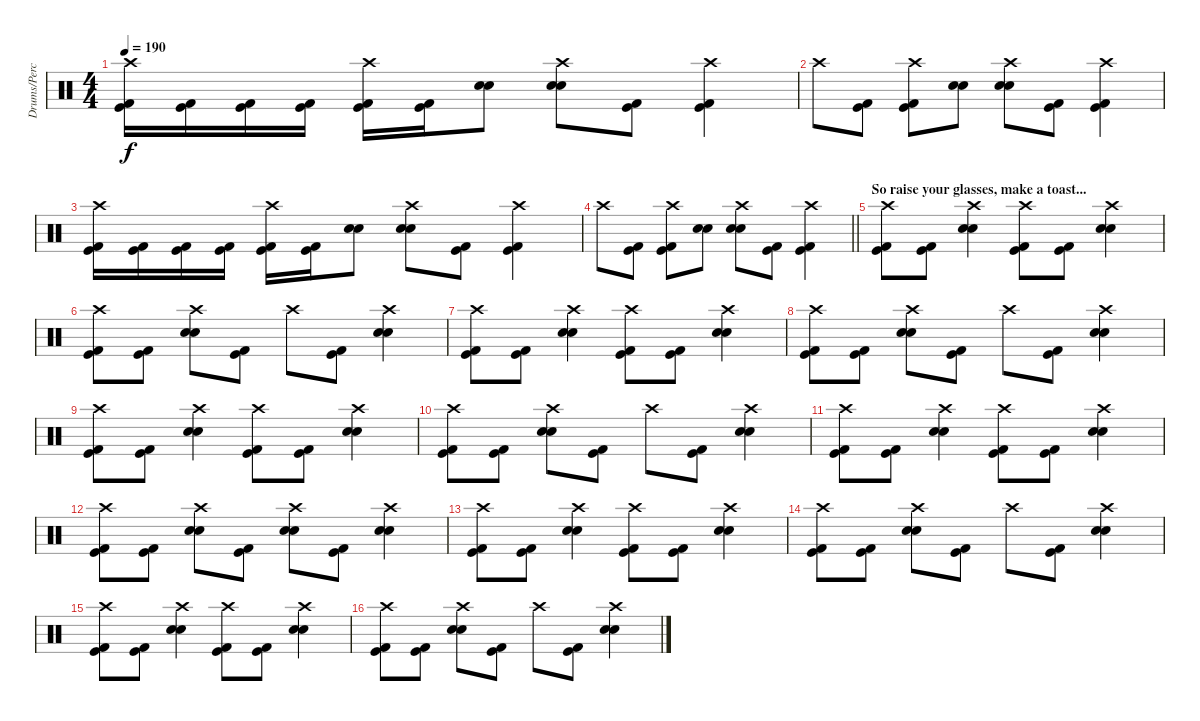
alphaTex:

\track ("Drums/Percussion" "Drums/Perc") {instrument percussion}
\staff {score}
\articulation defaults
\ts (4 4)
\tempo 190
\clef neutral
\ks c
("Crash high (hit)" "Kick (hit)" "Kick (hit) 2").16{dy f} ("Kick (hit)" "Kick (hit) 2").16 ("Kick (hit)" "Kick (hit) 2").16 ("Kick (hit)" "Kick (hit) 2").16 ("Crash high (hit)" "Kick (hit)" "Kick (hit) 2").16 ("Kick (hit)" "Kick (hit) 2").16 ("Electric Snare (hit)" "Snare (hit) 2").8 ("Crash high (hit)" "Electric Snare (hit)" "Snare (hit) 2").8 ("Kick (hit)" "Kick (hit) 2").8 ("Crash high (hit)" "Kick (hit)" "Kick (hit) 2").4 |
"Crash high (hit)".8 ("Kick (hit)" "Kick (hit) 2").8 ("Crash high (hit)" "Kick (hit)" "Kick (hit) 2").8 ("Electric Snare (hit)" "Snare (hit) 2").8 ("Crash high (hit)" "Electric Snare (hit)" "Snare (hit) 2").8 ("Kick (hit)" "Kick (hit) 2").8 ("Crash high (hit)" "Kick (hit)" "Kick (hit) 2").4 |
("Crash high (hit)" "Kick (hit)" "Kick (hit) 2").16 ("Kick (hit)" "Kick (hit) 2").16 ("Kick (hit)" "Kick (hit) 2").16 ("Kick (hit)" "Kick (hit) 2").16 ("Crash high (hit)" "Kick (hit)" "Kick (hit) 2").16 ("Kick (hit)" "Kick (hit) 2").16 ("Electric Snare (hit)" "Snare (hit) 2").8 ("Crash high (hit)" "Electric Snare (hit)" "Snare (hit) 2").8 ("Kick (hit)" "Kick (hit) 2").8 ("Crash high (hit)" "Kick (hit)" "Kick (hit) 2").4 |
\barLineRight lightlight "Crash high (hit)".8
("Kick (hit)" "Kick (hit) 2").8 ("Crash high (hit)" "Kick (hit)" "Kick (hit) 2").8 ("Electric Snare (hit)" "Snare (hit) 2").8 ("Crash high (hit)" "Electric Snare (hit)" "Snare (hit) 2").8 ("Kick (hit)" "Kick (hit) 2").8 ("Crash high (hit)" "Kick (hit)" "Kick (hit) 2").4 |
\section ("" "So raise your glasses, make a toast...")
("Crash high (hit)" "Kick (hit)" "Kick (hit) 2").8 ("Kick (hit)" "Kick (hit) 2").8 ("Crash high (hit)" "Electric Snare (hit)" "Snare (hit) 2").4 ("Crash high (hit)" "Kick (hit)" "Kick (hit) 2").8 ("Kick (hit)" "Kick (hit) 2").8 ("Crash high (hit)" "Electric Snare (hit)" "Snare (hit) 2").4 |
("Crash high (hit)" "Kick (hit)" "Kick (hit) 2").8 ("Kick (hit)" "Kick (hit) 2").8 ("Crash high (hit)" "Electric Snare (hit)" "Snare (hit) 2").8 ("Kick (hit)" "Kick (hit) 2").8 "Crash high (hit)".8 ("Kick (hit)" "Kick (hit) 2").8 ("Crash high (hit)" "Electric Snare (hit)" "Snare (hit) 2").4 |
("Crash high (hit)" "Kick (hit)" "Kick (hit) 2").8 ("Kick (hit)" "Kick (hit) 2").8 ("Crash high (hit)" "Electric Snare (hit)" "Snare (hit) 2").4 ("Crash high (hit)" "Kick (hit)" "Kick (hit) 2").8 ("Kick (hit)" "Kick (hit) 2").8 ("Crash high (hit)" "Electric Snare (hit)" "Snare (hit) 2").4 |
("Crash high (hit)" "Kick (hit)" "Kick (hit) 2").8 ("Kick (hit)" "Kick (hit) 2").8 ("Crash high (hit)" "Electric Snare (hit)" "Snare (hit) 2").8 ("Kick (hit)" "Kick (hit) 2").8 "Crash high (hit)".8 ("Kick (hit)" "Kick (hit) 2").8 ("Crash high (hit)" "Electric Snare (hit)" "Snare (hit) 2").4 |
("Crash high (hit)" "Kick (hit)" "Kick (hit) 2").8 ("Kick (hit)" "Kick (hit) 2").8 ("Crash high (hit)" "Electric Snare (hit)" "Snare (hit) 2").4 ("Crash high (hit)" "Kick (hit)" "Kick (hit) 2").8 ("Kick (hit)" "Kick (hit) 2").8 ("Crash high (hit)" "Electric Snare (hit)" "Snare (hit) 2").4 |
("Crash high (hit)" "Kick (hit)" "Kick (hit) 2").8 ("Kick (hit)" "Kick (hit) 2").8 ("Crash high (hit)" "Electric Snare (hit)" "Snare (hit) 2").8 ("Kick (hit)" "Kick (hit) 2").8 "Crash high (hit)".8 ("Kick (hit)" "Kick (hit) 2").8 ("Crash high (hit)" "Electric Snare (hit)" "Snare (hit) 2").4 |
("Crash high (hit)" "Kick (hit)" "Kick (hit) 2").8 ("Kick (hit)" "Kick (hit) 2").8 ("Crash high (hit)" "Electric Snare (hit)" "Snare (hit) 2").4 ("Crash high (hit)" "Kick (hit)" "Kick (hit) 2").8 ("Kick (hit)" "Kick (hit) 2").8 ("Crash high (hit)" "Electric Snare (hit)" "Snare (hit) 2").4 |
("Crash high (hit)" "Kick (hit)" "Kick (hit) 2").8 ("Kick (hit)" "Kick (hit) 2").8 ("Crash high (hit)" "Electric Snare (hit)" "Snare (hit) 2").8 ("Kick (hit)" "Kick (hit) 2").8 ("Crash high (hit)" "Electric Snare (hit)" "Snare (hit) 2").8 ("Kick (hit)" "Kick (hit) 2").8 ("Crash high (hit)" "Electric Snare (hit)" "Snare (hit) 2").4 |
("Crash high (hit)" "Kick (hit)" "Kick (hit) 2").8 ("Kick (hit)" "Kick (hit) 2").8 ("Crash high (hit)" "Electric Snare (hit)" "Snare (hit) 2").4 ("Crash high (hit)" "Kick (hit)" "Kick (hit) 2").8 ("Kick (hit)" "Kick (hit) 2").8 ("Crash high (hit)" "Electric Snare (hit)" "Snare (hit) 2").4 |
("Crash high (hit)" "Kick (hit)" "Kick (hit) 2").8 ("Kick (hit)" "Kick (hit) 2").8 ("Crash high (hit)" "Electric Snare (hit)" "Snare (hit) 2").8 ("Kick (hit)" "Kick (hit) 2").8 "Crash high (hit)".8 ("Kick (hit)" "Kick (hit) 2").8 ("Crash high (hit)" "Electric Snare (hit)" "Snare (hit) 2").4 |
("Crash high (hit)" "Kick (hit)" "Kick (hit) 2").8 ("Kick (hit)" "Kick (hit) 2").8 ("Crash high (hit)" "Electric Snare (hit)" "Snare (hit) 2").4 ("Crash high (hit)" "Kick (hit)" "Kick (hit) 2").8 ("Kick (hit)" "Kick (hit) 2").8 ("Crash high (hit)" "Electric Snare (hit)" "Snare (hit) 2").4 |
("Crash high (hit)" "Kick (hit)" "Kick (hit) 2").8 ("Kick (hit)" "Kick (hit) 2").8 ("Crash high (hit)" "Electric Snare (hit)" "Snare (hit) 2").8 ("Kick (hit)" "Kick (hit) 2").8 "Crash high (hit)".8 ("Kick (hit)" "Kick (hit) 2").8 ("Crash high (hit)" "Electric Snare (hit)" "Snare (hit) 2").4
